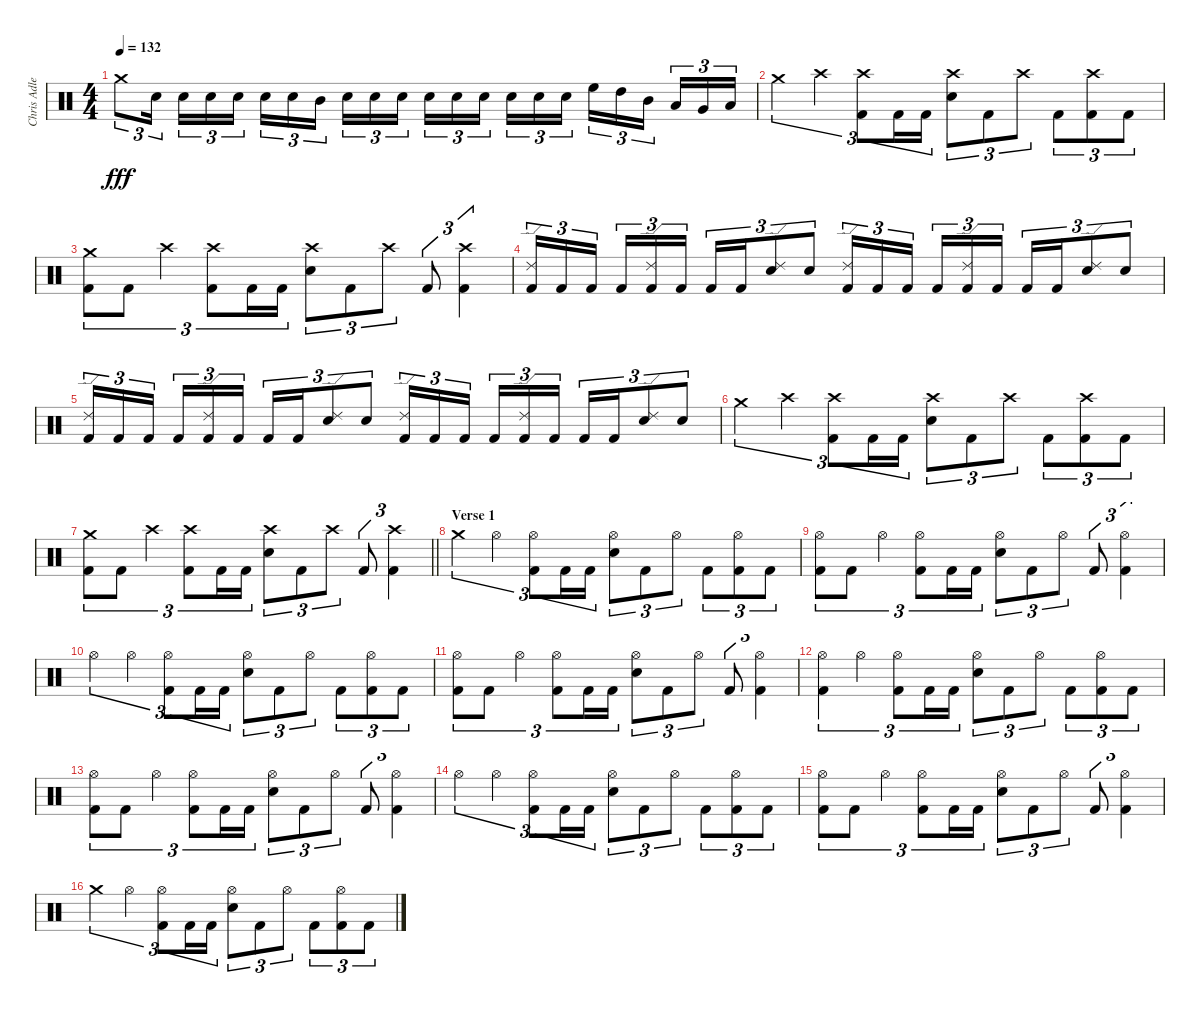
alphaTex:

\track ("Chris Adler" "Chris Adle") {instrument percussion}
\staff {score}
\articulation defaults
\ts (4 4)
\tempo 132
\clef neutral
\ks c "Crash medium (hit)".8{tu (3 2) dy fff} "Electric Snare (hit)".16{tu (3 2) beam splitsecondary} "Electric Snare (hit)".16{tu (3 2)} "Electric Snare (hit)".16{tu (3 2)} "Electric Snare (hit)".16{tu (3 2)} "Electric Snare (hit)".16{tu (3 2)} "Electric Snare (hit)".16{tu (3 2)} "Mid Tom (hit)".16{tu (3 2) beam splitsecondary} "Electric Snare (hit)".16{tu (3 2)} "Electric Snare (hit)".16{tu (3 2)} "Electric Snare (hit)".16{tu (3 2)} "Electric Snare (hit)".16{tu (3 2)} "Electric Snare (hit)".16{tu (3 2)} "Electric Snare (hit)".16{tu (3 2) beam splitsecondary} "Electric Snare (hit)".16{tu (3 2)} "Electric Snare (hit)".16{tu (3 2)} "Electric Snare (hit)".16{tu (3 2)} "High Floor Tom (hit)".16{tu (3 2)} "High Tom (hit)".16{tu (3 2)} "Mid Tom (hit)".16{tu (3 2) beam splitsecondary} "Low Tom (hit)".16{tu (3 2)} "Very Low Tom (hit)".16{tu (3 2)} "Low Floor Tom (hit)".16{tu (3 2)}
|
"Crash medium (hit)".4{tu (3 2)} "Crash high (hit)".4{tu (3 2)} ("Crash high (hit)" "Kick (hit) 2").8{tu (3 2)} "Kick (hit) 2".16{tu (3 2)} "Kick (hit) 2".16{tu (3 2)} ("Crash high (hit)" "Electric Snare (hit)").8{tu (3 2)} "Kick (hit) 2".8{tu (3 2)} "Crash high (hit)".8{tu (3 2)} "Kick (hit) 2".8{tu (3 2)} ("Crash high (hit)" "Kick (hit) 2").8{tu (3 2)} "Kick (hit) 2".8{tu (3 2)} |
("Crash medium (hit)" "Kick (hit) 2").8{tu (3 2)} "Kick (hit) 2".8{tu (3 2)} "Crash high (hit)".4{tu (3 2)} ("Crash high (hit)" "Kick (hit) 2").8{tu (3 2)} "Kick (hit) 2".16{tu (3 2)} "Kick (hit) 2".16{tu (3 2)} ("Crash high (hit)" "Electric Snare (hit)").8{tu (3 2)} "Kick (hit) 2".8{tu (3 2)} "Crash high (hit)".8{tu (3 2)} "Kick (hit) 2".8{tu (3 2)} ("Crash high (hit)" "Kick (hit) 2").4{tu (3 2)} |
("Ride (edge) 2" "Kick (hit) 2").16{tu (3 2)} "Kick (hit) 2".16{tu (3 2)} "Kick (hit) 2".16{tu (3 2) beam splitsecondary} "Kick (hit) 2".16{tu (3 2)} ("Ride (edge) 2" "Kick (hit) 2").16{tu (3 2)} "Kick (hit) 2".16{tu (3 2)} "Kick (hit) 2".16{tu (3 2)} "Kick (hit) 2".16{tu (3 2)} ("Ride (edge) 2" "Electric Snare (hit)").8{tu (3 2)} "Electric Snare (hit)".8{tu (3 2)} ("Ride (edge) 2" "Kick (hit) 2").16{tu (3 2)} "Kick (hit) 2".16{tu (3 2)} "Kick (hit) 2".16{tu (3 2) beam splitsecondary} "Kick (hit) 2".16{tu (3 2)} ("Ride (edge) 2" "Kick (hit) 2").16{tu (3 2)} "Kick (hit) 2".16{tu (3 2)} "Kick (hit) 2".16{tu (3 2)} "Kick (hit) 2".16{tu (3 2)} ("Ride (edge) 2" "Electric Snare (hit)").8{tu (3 2)} "Electric Snare (hit)".8{tu (3 2)} |
("Ride (edge) 2" "Kick (hit) 2").16{tu (3 2)} "Kick (hit) 2".16{tu (3 2)} "Kick (hit) 2".16{tu (3 2) beam splitsecondary} "Kick (hit) 2".16{tu (3 2)} ("Ride (edge) 2" "Kick (hit) 2").16{tu (3 2)} "Kick (hit) 2".16{tu (3 2)} "Kick (hit) 2".16{tu (3 2)} "Kick (hit) 2".16{tu (3 2)} ("Ride (edge) 2" "Electric Snare (hit)").8{tu (3 2)} "Electric Snare (hit)".8{tu (3 2)} ("Ride (edge) 2" "Kick (hit) 2").16{tu (3 2)} "Kick (hit) 2".16{tu (3 2)} "Kick (hit) 2".16{tu (3 2) beam splitsecondary} "Kick (hit) 2".16{tu (3 2)} ("Ride (edge) 2" "Kick (hit) 2").16{tu (3 2)} "Kick (hit) 2".16{tu (3 2)} "Kick (hit) 2".16{tu (3 2)} "Kick (hit) 2".16{tu (3 2)} ("Ride (edge) 2" "Electric Snare (hit)").8{tu (3 2)} "Electric Snare (hit)".8{tu (3 2)} |
"Crash medium (hit)".4{tu (3 2)} "Crash high (hit)".4{tu (3 2)} ("Crash high (hit)" "Kick (hit) 2").8{tu (3 2)} "Kick (hit) 2".16{tu (3 2)} "Kick (hit) 2".16{tu (3 2)} ("Crash high (hit)" "Electric Snare (hit)").8{tu (3 2)} "Kick (hit) 2".8{tu (3 2)} "Crash high (hit)".8{tu (3 2)} "Kick (hit) 2".8{tu (3 2)} ("Crash high (hit)" "Kick (hit) 2").8{tu (3 2)} "Kick (hit) 2".8{tu (3 2)} |
\barLineRight lightlight
("Crash medium (hit)" "Kick (hit) 2").8{tu (3 2)} "Kick (hit) 2".8{tu (3 2)} "Crash high (hit)".4{tu (3 2)} ("Crash high (hit)" "Kick (hit) 2").8{tu (3 2)} "Kick (hit) 2".16{tu (3 2)} "Kick (hit) 2".16{tu (3 2)} ("Crash high (hit)" "Electric Snare (hit)").8{tu (3 2)} "Kick (hit) 2".8{tu (3 2)} "Crash high (hit)".8{tu (3 2)} "Kick (hit) 2".8{tu (3 2)} ("Crash high (hit)" "Kick (hit) 2").4{tu (3 2)} |
\section ("" "Verse 1")
"Crash medium (hit)".4{tu (3 2)} "Hi-Hat (open)".4{tu (3 2)} ("Hi-Hat (open)" "Kick (hit) 2").8{tu (3 2)} "Kick (hit) 2".16{tu (3 2)} "Kick (hit) 2".16{tu (3 2)} ("Hi-Hat (open)" "Electric Snare (hit)").8{tu (3 2)} "Kick (hit) 2".8{tu (3 2)} "Hi-Hat (open)".8{tu (3 2)} "Kick (hit) 2".8{tu (3 2)} ("Hi-Hat (open)" "Kick (hit) 2").8{tu (3 2)} "Kick (hit) 2".8{tu (3 2)} |
("Hi-Hat (open)" "Kick (hit) 2").8{tu (3 2)} "Kick (hit) 2".8{tu (3 2)} "Hi-Hat (open)".4{tu (3 2)} ("Hi-Hat (open)" "Kick (hit) 2").8{tu (3 2)} "Kick (hit) 2".16{tu (3 2)} "Kick (hit) 2".16{tu (3 2)} ("Hi-Hat (open)" "Electric Snare (hit)").8{tu (3 2)} "Kick (hit) 2".8{tu (3 2)} "Hi-Hat (open)".8{tu (3 2)} "Kick (hit) 2".8{tu (3 2)} ("Hi-Hat (open)" "Kick (hit) 2").4{tu (3 2)} |
"Hi-Hat (open)".4{tu (3 2)} "Hi-Hat (open)".4{tu (3 2)} ("Hi-Hat (open)" "Kick (hit) 2").8{tu (3 2)} "Kick (hit) 2".16{tu (3 2)} "Kick (hit) 2".16{tu (3 2)} ("Hi-Hat (open)" "Electric Snare (hit)").8{tu (3 2)} "Kick (hit) 2".8{tu (3 2)} "Hi-Hat (open)".8{tu (3 2)} "Kick (hit) 2".8{tu (3 2)} ("Hi-Hat (open)" "Kick (hit) 2").8{tu (3 2)} "Kick (hit) 2".8{tu (3 2)} |
("Hi-Hat (open)" "Kick (hit) 2").8{tu (3 2)} "Kick (hit) 2".8{tu (3 2)} "Hi-Hat (open)".4{tu (3 2)} ("Hi-Hat (open)" "Kick (hit) 2").8{tu (3 2)} "Kick (hit) 2".16{tu (3 2)} "Kick (hit) 2".16{tu (3 2)} ("Hi-Hat (open)" "Electric Snare (hit)").8{tu (3 2)} "Kick (hit) 2".8{tu (3 2)} "Hi-Hat (open)".8{tu (3 2)} "Kick (hit) 2".8{tu (3 2)} ("Hi-Hat (open)" "Kick (hit) 2").4{tu (3 2)} |
("Hi-Hat (open)" "Kick (hit) 2").4{tu (3 2)} "Hi-Hat (open)".4{tu (3 2)} ("Hi-Hat (open)" "Kick (hit) 2").8{tu (3 2)} "Kick (hit) 2".16{tu (3 2)} "Kick (hit) 2".16{tu (3 2)} ("Hi-Hat (open)" "Electric Snare (hit)").8{tu (3 2)} "Kick (hit) 2".8{tu (3 2)} "Hi-Hat (open)".8{tu (3 2)} "Kick (hit) 2".8{tu (3 2)} ("Hi-Hat (open)" "Kick (hit) 2").8{tu (3 2)} "Kick (hit) 2".8{tu (3 2)} |
("Hi-Hat (open)" "Kick (hit) 2").8{tu (3 2)} "Kick (hit) 2".8{tu (3 2)} "Hi-Hat (open)".4{tu (3 2)} ("Hi-Hat (open)" "Kick (hit) 2").8{tu (3 2)} "Kick (hit) 2".16{tu (3 2)} "Kick (hit) 2".16{tu (3 2)} ("Hi-Hat (open)" "Electric Snare (hit)").8{tu (3 2)} "Kick (hit) 2".8{tu (3 2)} "Hi-Hat (open)".8{tu (3 2)} "Kick (hit) 2".8{tu (3 2)} ("Hi-Hat (open)" "Kick (hit) 2").4{tu (3 2)} |
"Hi-Hat (open)".4{tu (3 2)} "Hi-Hat (open)".4{tu (3 2)} ("Hi-Hat (open)" "Kick (hit) 2").8{tu (3 2)} "Kick (hit) 2".16{tu (3 2)} "Kick (hit) 2".16{tu (3 2)} ("Hi-Hat (open)" "Electric Snare (hit)").8{tu (3 2)} "Kick (hit) 2".8{tu (3 2)} "Hi-Hat (open)".8{tu (3 2)} "Kick (hit) 2".8{tu (3 2)} ("Hi-Hat (open)" "Kick (hit) 2").8{tu (3 2)} "Kick (hit) 2".8{tu (3 2)} |
("Hi-Hat (open)" "Kick (hit) 2").8{tu (3 2)} "Kick (hit) 2".8{tu (3 2)} "Hi-Hat (open)".4{tu (3 2)} ("Hi-Hat (open)" "Kick (hit) 2").8{tu (3 2)} "Kick (hit) 2".16{tu (3 2)} "Kick (hit) 2".16{tu (3 2)} ("Hi-Hat (open)" "Electric Snare (hit)").8{tu (3 2)} "Kick (hit) 2".8{tu (3 2)} "Hi-Hat (open)".8{tu (3 2)} "Kick (hit) 2".8{tu (3 2)} ("Hi-Hat (open)" "Kick (hit) 2").4{tu (3 2)} |
"Crash medium (hit)".4{tu (3 2)} "Hi-Hat (open)".4{tu (3 2)} ("Hi-Hat (open)" "Kick (hit) 2").8{tu (3 2)} "Kick (hit) 2".16{tu (3 2)} "Kick (hit) 2".16{tu (3 2)} ("Hi-Hat (open)" "Electric Snare (hit)").8{tu (3 2)} "Kick (hit) 2".8{tu (3 2)} "Hi-Hat (open)".8{tu (3 2)} "Kick (hit) 2".8{tu (3 2)} ("Hi-Hat (open)" "Kick (hit) 2").8{tu (3 2)} "Kick (hit) 2".8{tu (3 2)}
